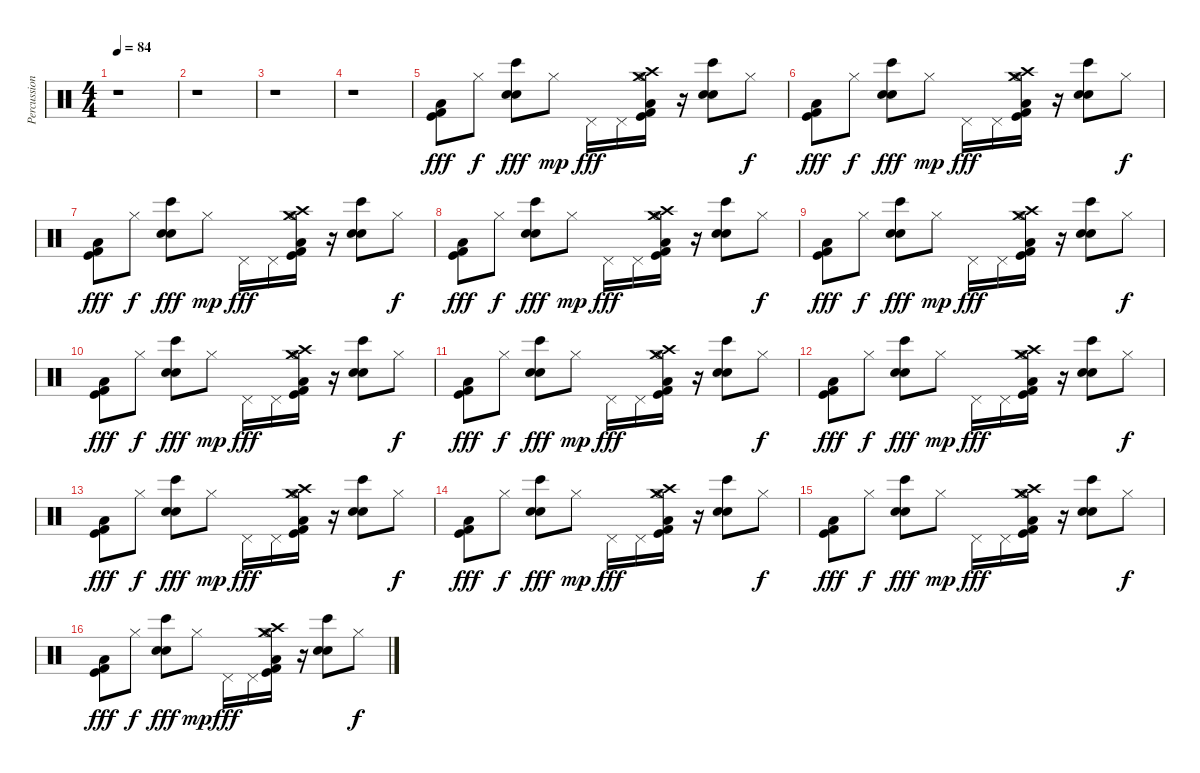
\track ("Percussion" "Percussion") {instrument percussion}
\staff {score}
\articulation defaults
\ts (4 4)
\tempo 84
\clef neutral
\ks c
r.1{dy fff} |
r.1 |
r.1 |
r.1 |
("Low Floor Tom (hit)" "Kick (hit)" "Kick (hit) 2").8 "Hi-Hat (closed)".8{dy f} ("Bongo High (hit)" "Electric Snare (hit)" "Snare (hit) 2").8{dy fff} "Hi-Hat (closed)".8{dy mp} "Pedal Hi-Hat (hit)".16{dy fff} "Pedal Hi-Hat (hit)".16 ("Low Floor Tom (hit)" "Crash medium (hit)" "Crash high (hit)" "Hi-Hat (open)" "Kick (hit)" "Kick (hit) 2").16 r.16 ("Bongo High (hit)" "Electric Snare (hit)" "Snare (hit) 2").8 "Hi-Hat (closed)".8{dy f} |
("Low Floor Tom (hit)" "Kick (hit)" "Kick (hit) 2").8{dy fff} "Hi-Hat (closed)".8{dy f} ("Bongo High (hit)" "Electric Snare (hit)" "Snare (hit) 2").8{dy fff} "Hi-Hat (closed)".8{dy mp} "Pedal Hi-Hat (hit)".16{dy fff} "Pedal Hi-Hat (hit)".16 ("Low Floor Tom (hit)" "Crash medium (hit)" "Crash high (hit)" "Hi-Hat (open)" "Kick (hit)" "Kick (hit) 2").16 r.16 ("Bongo High (hit)" "Electric Snare (hit)" "Snare (hit) 2").8 "Hi-Hat (closed)".8{dy f} |
("Low Floor Tom (hit)" "Kick (hit)" "Kick (hit) 2").8{dy fff} "Hi-Hat (closed)".8{dy f} ("Bongo High (hit)" "Electric Snare (hit)" "Snare (hit) 2").8{dy fff} "Hi-Hat (closed)".8{dy mp} "Pedal Hi-Hat (hit)".16{dy fff} "Pedal Hi-Hat (hit)".16 ("Low Floor Tom (hit)" "Crash medium (hit)" "Crash high (hit)" "Hi-Hat (open)" "Kick (hit)" "Kick (hit) 2").16 r.16 ("Bongo High (hit)" "Electric Snare (hit)" "Snare (hit) 2").8 "Hi-Hat (closed)".8{dy f} |
("Low Floor Tom (hit)" "Kick (hit)" "Kick (hit) 2").8{dy fff} "Hi-Hat (closed)".8{dy f} ("Bongo High (hit)" "Electric Snare (hit)" "Snare (hit) 2").8{dy fff} "Hi-Hat (closed)".8{dy mp} "Pedal Hi-Hat (hit)".16{dy fff} "Pedal Hi-Hat (hit)".16 ("Low Floor Tom (hit)" "Crash medium (hit)" "Crash high (hit)" "Hi-Hat (open)" "Kick (hit)" "Kick (hit) 2").16 r.16 ("Bongo High (hit)" "Electric Snare (hit)" "Snare (hit) 2").8 "Hi-Hat (closed)".8{dy f} |
("Low Floor Tom (hit)" "Kick (hit)" "Kick (hit) 2").8{dy fff} "Hi-Hat (closed)".8{dy f} ("Bongo High (hit)" "Electric Snare (hit)" "Snare (hit) 2").8{dy fff} "Hi-Hat (closed)".8{dy mp} "Pedal Hi-Hat (hit)".16{dy fff} "Pedal Hi-Hat (hit)".16 ("Low Floor Tom (hit)" "Crash medium (hit)" "Crash high (hit)" "Hi-Hat (open)" "Kick (hit)" "Kick (hit) 2").16 r.16 ("Bongo High (hit)" "Electric Snare (hit)" "Snare (hit) 2").8 "Hi-Hat (closed)".8{dy f} |
("Low Floor Tom (hit)" "Kick (hit)" "Kick (hit) 2").8{dy fff} "Hi-Hat (closed)".8{dy f} ("Bongo High (hit)" "Electric Snare (hit)" "Snare (hit) 2").8{dy fff} "Hi-Hat (closed)".8{dy mp} "Pedal Hi-Hat (hit)".16{dy fff} "Pedal Hi-Hat (hit)".16 ("Low Floor Tom (hit)" "Crash medium (hit)" "Crash high (hit)" "Hi-Hat (open)" "Kick (hit)" "Kick (hit) 2").16 r.16 ("Bongo High (hit)" "Electric Snare (hit)" "Snare (hit) 2").8 "Hi-Hat (closed)".8{dy f} |
("Low Floor Tom (hit)" "Kick (hit)" "Kick (hit) 2").8{dy fff} "Hi-Hat (closed)".8{dy f} ("Bongo High (hit)" "Electric Snare (hit)" "Snare (hit) 2").8{dy fff} "Hi-Hat (closed)".8{dy mp} "Pedal Hi-Hat (hit)".16{dy fff} "Pedal Hi-Hat (hit)".16 ("Low Floor Tom (hit)" "Crash medium (hit)" "Crash high (hit)" "Hi-Hat (open)" "Kick (hit)" "Kick (hit) 2").16 r.16 ("Bongo High (hit)" "Electric Snare (hit)" "Snare (hit) 2").8 "Hi-Hat (closed)".8{dy f} |
("Low Floor Tom (hit)" "Kick (hit)" "Kick (hit) 2").8{dy fff} "Hi-Hat (closed)".8{dy f} ("Bongo High (hit)" "Electric Snare (hit)" "Snare (hit) 2").8{dy fff} "Hi-Hat (closed)".8{dy mp} "Pedal Hi-Hat (hit)".16{dy fff} "Pedal Hi-Hat (hit)".16 ("Low Floor Tom (hit)" "Crash medium (hit)" "Crash high (hit)" "Hi-Hat (open)" "Kick (hit)" "Kick (hit) 2").16 r.16 ("Bongo High (hit)" "Electric Snare (hit)" "Snare (hit) 2").8 "Hi-Hat (closed)".8{dy f} |
("Low Floor Tom (hit)" "Kick (hit)" "Kick (hit) 2").8{dy fff} "Hi-Hat (closed)".8{dy f} ("Bongo High (hit)" "Electric Snare (hit)" "Snare (hit) 2").8{dy fff} "Hi-Hat (closed)".8{dy mp} "Pedal Hi-Hat (hit)".16{dy fff} "Pedal Hi-Hat (hit)".16 ("Low Floor Tom (hit)" "Crash medium (hit)" "Crash high (hit)" "Hi-Hat (open)" "Kick (hit)" "Kick (hit) 2").16 r.16 ("Bongo High (hit)" "Electric Snare (hit)" "Snare (hit) 2").8 "Hi-Hat (closed)".8{dy f} |
("Low Floor Tom (hit)" "Kick (hit)" "Kick (hit) 2").8{dy fff} "Hi-Hat (closed)".8{dy f} ("Bongo High (hit)" "Electric Snare (hit)" "Snare (hit) 2").8{dy fff} "Hi-Hat (closed)".8{dy mp} "Pedal Hi-Hat (hit)".16{dy fff} "Pedal Hi-Hat (hit)".16 ("Low Floor Tom (hit)" "Crash medium (hit)" "Crash high (hit)" "Hi-Hat (open)" "Kick (hit)" "Kick (hit) 2").16 r.16 ("Bongo High (hit)" "Electric Snare (hit)" "Snare (hit) 2").8 "Hi-Hat (closed)".8{dy f} |
("Low Floor Tom (hit)" "Kick (hit)" "Kick (hit) 2").8{dy fff} "Hi-Hat (closed)".8{dy f} ("Bongo High (hit)" "Electric Snare (hit)" "Snare (hit) 2").8{dy fff} "Hi-Hat (closed)".8{dy mp} "Pedal Hi-Hat (hit)".16{dy fff} "Pedal Hi-Hat (hit)".16 ("Low Floor Tom (hit)" "Crash medium (hit)" "Crash high (hit)" "Hi-Hat (open)" "Kick (hit)" "Kick (hit) 2").16 r.16 ("Bongo High (hit)" "Electric Snare (hit)" "Snare (hit) 2").8 "Hi-Hat (closed)".8{dy f} |
("Low Floor Tom (hit)" "Kick (hit)" "Kick (hit) 2").8{dy fff} "Hi-Hat (closed)".8{dy f} ("Bongo High (hit)" "Electric Snare (hit)" "Snare (hit) 2").8{dy fff} "Hi-Hat (closed)".8{dy mp} "Pedal Hi-Hat (hit)".16{dy fff} "Pedal Hi-Hat (hit)".16 ("Low Floor Tom (hit)" "Crash medium (hit)" "Crash high (hit)" "Hi-Hat (open)" "Kick (hit)" "Kick (hit) 2").16 r.16 ("Bongo High (hit)" "Electric Snare (hit)" "Snare (hit) 2").8 "Hi-Hat (closed)".8{dy f}
